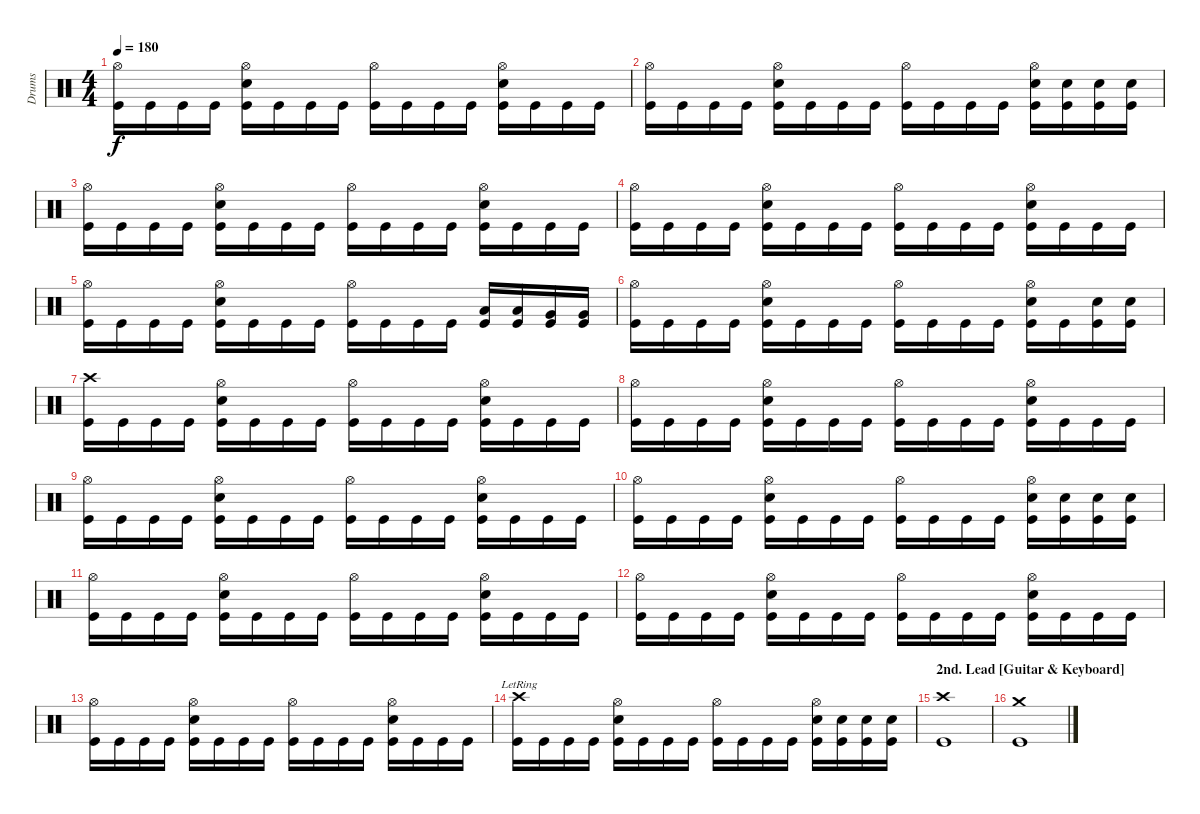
\track ("Drums" "Drums") {instrument percussion}
\staff {score}
\articulation defaults
\ts (4 4)
\tempo 180
\clef neutral
\ks c
("Hi-Hat (open)" "Kick (hit)").16{dy f} "Kick (hit)".16 "Kick (hit)".16 "Kick (hit)".16 ("Hi-Hat (open)" "Electric Snare (hit)" "Kick (hit)").16 "Kick (hit)".16 "Kick (hit)".16 "Kick (hit)".16 ("Hi-Hat (open)" "Kick (hit)").16 "Kick (hit)".16 "Kick (hit)".16 "Kick (hit)".16 ("Hi-Hat (open)" "Electric Snare (hit)" "Kick (hit)").16 "Kick (hit)".16 "Kick (hit)".16 "Kick (hit)".16 |
("Hi-Hat (open)" "Kick (hit)").16 "Kick (hit)".16 "Kick (hit)".16 "Kick (hit)".16 ("Hi-Hat (open)" "Electric Snare (hit)" "Kick (hit)").16 "Kick (hit)".16 "Kick (hit)".16 "Kick (hit)".16 ("Hi-Hat (open)" "Kick (hit)").16 "Kick (hit)".16 "Kick (hit)".16 "Kick (hit)".16 ("Hi-Hat (open)" "Electric Snare (hit)" "Kick (hit)").16 ("Electric Snare (hit)" "Kick (hit)").16 ("Electric Snare (hit)" "Kick (hit)").16 ("Electric Snare (hit)" "Kick (hit)").16 |
("Hi-Hat (open)" "Kick (hit)").16 "Kick (hit)".16 "Kick (hit)".16 "Kick (hit)".16 ("Hi-Hat (open)" "Electric Snare (hit)" "Kick (hit)").16 "Kick (hit)".16 "Kick (hit)".16 "Kick (hit)".16 ("Hi-Hat (open)" "Kick (hit)").16 "Kick (hit)".16 "Kick (hit)".16 "Kick (hit)".16 ("Hi-Hat (open)" "Electric Snare (hit)" "Kick (hit)").16 "Kick (hit)".16 "Kick (hit)".16 "Kick (hit)".16 |
("Hi-Hat (open)" "Kick (hit)").16 "Kick (hit)".16 "Kick (hit)".16 "Kick (hit)".16 ("Hi-Hat (open)" "Electric Snare (hit)" "Kick (hit)").16 "Kick (hit)".16 "Kick (hit)".16 "Kick (hit)".16 ("Hi-Hat (open)" "Kick (hit)").16 "Kick (hit)".16 "Kick (hit)".16 "Kick (hit)".16 ("Hi-Hat (open)" "Electric Snare (hit)" "Kick (hit)").16 "Kick (hit)".16 "Kick (hit)".16 "Kick (hit)".16 |
("Hi-Hat (open)" "Kick (hit)").16 "Kick (hit)".16 "Kick (hit)".16 "Kick (hit)".16 ("Hi-Hat (open)" "Electric Snare (hit)" "Kick (hit)").16 "Kick (hit)".16 "Kick (hit)".16 "Kick (hit)".16 ("Hi-Hat (open)" "Kick (hit)").16 "Kick (hit)".16 "Kick (hit)".16 "Kick (hit)".16 ("Low Tom (hit)" "Kick (hit)").16 ("Low Tom (hit)" "Kick (hit)").16 ("Very Low Tom (hit)" "Kick (hit)").16 ("Very Low Tom (hit)" "Kick (hit)").16 |
("Hi-Hat (open)" "Kick (hit)").16 "Kick (hit)".16 "Kick (hit)".16 "Kick (hit)".16 ("Hi-Hat (open)" "Electric Snare (hit)" "Kick (hit)").16 "Kick (hit)".16 "Kick (hit)".16 "Kick (hit)".16 ("Hi-Hat (open)" "Kick (hit)").16 "Kick (hit)".16 "Kick (hit)".16 "Kick (hit)".16 ("Hi-Hat (open)" "Electric Snare (hit)" "Kick (hit)").16 "Kick (hit)".16 ("Electric Snare (hit)" "Kick (hit)").16 ("Electric Snare (hit)" "Kick (hit)").16 |
("Crash high (hit)" "Kick (hit)").16 "Kick (hit)".16 "Kick (hit)".16 "Kick (hit)".16 ("Hi-Hat (open)" "Electric Snare (hit)" "Kick (hit)").16 "Kick (hit)".16 "Kick (hit)".16 "Kick (hit)".16 ("Hi-Hat (open)" "Kick (hit)").16 "Kick (hit)".16 "Kick (hit)".16 "Kick (hit)".16 ("Hi-Hat (open)" "Electric Snare (hit)" "Kick (hit)").16 "Kick (hit)".16 "Kick (hit)".16 "Kick (hit)".16 |
("Hi-Hat (open)" "Kick (hit)").16 "Kick (hit)".16 "Kick (hit)".16 "Kick (hit)".16 ("Hi-Hat (open)" "Electric Snare (hit)" "Kick (hit)").16 "Kick (hit)".16 "Kick (hit)".16 "Kick (hit)".16 ("Hi-Hat (open)" "Kick (hit)").16 "Kick (hit)".16 "Kick (hit)".16 "Kick (hit)".16 ("Hi-Hat (open)" "Electric Snare (hit)" "Kick (hit)").16 "Kick (hit)".16 "Kick (hit)".16 "Kick (hit)".16 |
("Hi-Hat (open)" "Kick (hit)").16 "Kick (hit)".16 "Kick (hit)".16 "Kick (hit)".16 ("Hi-Hat (open)" "Electric Snare (hit)" "Kick (hit)").16 "Kick (hit)".16 "Kick (hit)".16 "Kick (hit)".16 ("Hi-Hat (open)" "Kick (hit)").16 "Kick (hit)".16 "Kick (hit)".16 "Kick (hit)".16 ("Hi-Hat (open)" "Electric Snare (hit)" "Kick (hit)").16 "Kick (hit)".16 "Kick (hit)".16 "Kick (hit)".16 |
("Hi-Hat (open)" "Kick (hit)").16 "Kick (hit)".16 "Kick (hit)".16 "Kick (hit)".16 ("Hi-Hat (open)" "Electric Snare (hit)" "Kick (hit)").16 "Kick (hit)".16 "Kick (hit)".16 "Kick (hit)".16 ("Hi-Hat (open)" "Kick (hit)").16 "Kick (hit)".16 "Kick (hit)".16 "Kick (hit)".16 ("Hi-Hat (open)" "Electric Snare (hit)" "Kick (hit)").16 ("Electric Snare (hit)" "Kick (hit)").16 ("Electric Snare (hit)" "Kick (hit)").16 ("Electric Snare (hit)" "Kick (hit)").16 |
("Hi-Hat (open)" "Kick (hit)").16 "Kick (hit)".16 "Kick (hit)".16 "Kick (hit)".16 ("Hi-Hat (open)" "Electric Snare (hit)" "Kick (hit)").16 "Kick (hit)".16 "Kick (hit)".16 "Kick (hit)".16 ("Hi-Hat (open)" "Kick (hit)").16 "Kick (hit)".16 "Kick (hit)".16 "Kick (hit)".16 ("Hi-Hat (open)" "Electric Snare (hit)" "Kick (hit)").16 "Kick (hit)".16 "Kick (hit)".16 "Kick (hit)".16 |
("Hi-Hat (open)" "Kick (hit)").16 "Kick (hit)".16 "Kick (hit)".16 "Kick (hit)".16 ("Hi-Hat (open)" "Electric Snare (hit)" "Kick (hit)").16 "Kick (hit)".16 "Kick (hit)".16 "Kick (hit)".16 ("Hi-Hat (open)" "Kick (hit)").16 "Kick (hit)".16 "Kick (hit)".16 "Kick (hit)".16 ("Hi-Hat (open)" "Electric Snare (hit)" "Kick (hit)").16 "Kick (hit)".16 "Kick (hit)".16 "Kick (hit)".16 |
("Hi-Hat (open)" "Kick (hit)").16 "Kick (hit)".16 "Kick (hit)".16 "Kick (hit)".16 ("Hi-Hat (open)" "Electric Snare (hit)" "Kick (hit)").16 "Kick (hit)".16 "Kick (hit)".16 "Kick (hit)".16 ("Hi-Hat (open)" "Kick (hit)").16 "Kick (hit)".16 "Kick (hit)".16 "Kick (hit)".16 ("Hi-Hat (open)" "Electric Snare (hit)" "Kick (hit)").16 "Kick (hit)".16 "Kick (hit)".16 "Kick (hit)".16 |
("Crash high (hit)"{lr} "Kick (hit)").16 "Kick (hit)".16 "Kick (hit)".16 "Kick (hit)".16 ("Hi-Hat (open)" "Electric Snare (hit)" "Kick (hit)").16 "Kick (hit)".16 "Kick (hit)".16 "Kick (hit)".16 ("Hi-Hat (open)" "Kick (hit)").16 "Kick (hit)".16 "Kick (hit)".16 "Kick (hit)".16 ("Hi-Hat (open)" "Electric Snare (hit)" "Kick (hit)").16 ("Electric Snare (hit)" "Kick (hit)").16 ("Electric Snare (hit)" "Kick (hit)").16 ("Electric Snare (hit)" "Kick (hit)").16 |
\section ("" "2nd. Lead [Guitar & Keyboard]")
("Crash high (hit)" "Kick (hit)").1 |
("Crash medium (hit)" "Kick (hit)").1
